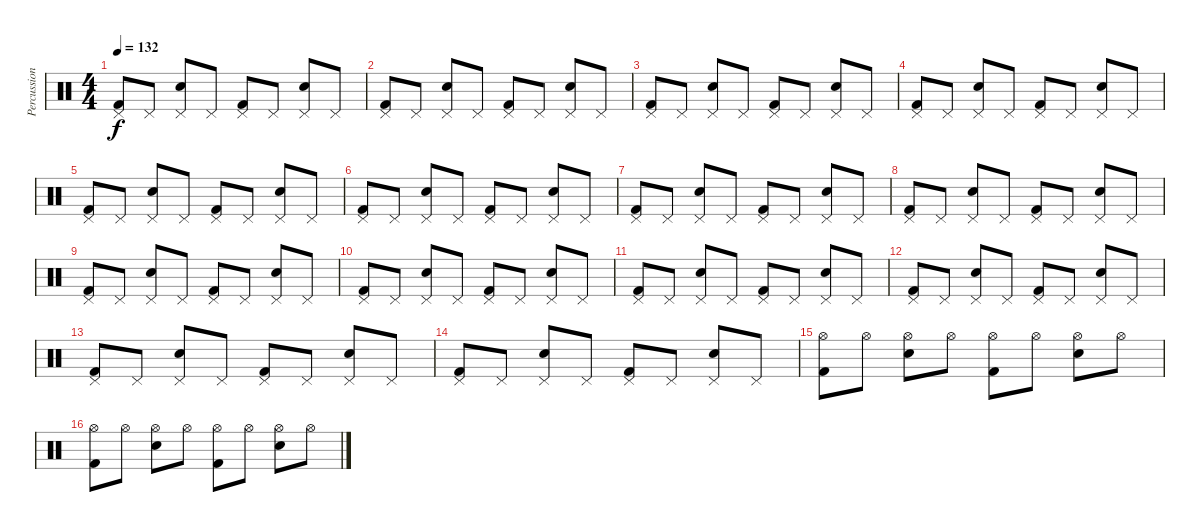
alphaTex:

\track ("Percussion" "Percussion") {instrument percussion}
\staff {score}
\articulation defaults
\ts (4 4)
\tempo 132
\clef neutral
\ks c
("Pedal Hi-Hat (hit)" "Kick (hit) 2").8{dy f} "Pedal Hi-Hat (hit)".8 ("Pedal Hi-Hat (hit)" "Snare (hit) 2").8 "Pedal Hi-Hat (hit)".8 ("Pedal Hi-Hat (hit)" "Kick (hit) 2").8 "Pedal Hi-Hat (hit)".8 ("Pedal Hi-Hat (hit)" "Snare (hit) 2").8 "Pedal Hi-Hat (hit)".8 |
("Pedal Hi-Hat (hit)" "Kick (hit) 2").8 "Pedal Hi-Hat (hit)".8 ("Pedal Hi-Hat (hit)" "Snare (hit) 2").8 "Pedal Hi-Hat (hit)".8 ("Pedal Hi-Hat (hit)" "Kick (hit) 2").8 "Pedal Hi-Hat (hit)".8 ("Pedal Hi-Hat (hit)" "Snare (hit) 2").8 "Pedal Hi-Hat (hit)".8 |
("Pedal Hi-Hat (hit)" "Kick (hit) 2").8 "Pedal Hi-Hat (hit)".8 ("Pedal Hi-Hat (hit)" "Snare (hit) 2").8 "Pedal Hi-Hat (hit)".8 ("Pedal Hi-Hat (hit)" "Kick (hit) 2").8 "Pedal Hi-Hat (hit)".8 ("Pedal Hi-Hat (hit)" "Snare (hit) 2").8 "Pedal Hi-Hat (hit)".8 |
("Pedal Hi-Hat (hit)" "Kick (hit) 2").8 "Pedal Hi-Hat (hit)".8 ("Pedal Hi-Hat (hit)" "Snare (hit) 2").8 "Pedal Hi-Hat (hit)".8 ("Pedal Hi-Hat (hit)" "Kick (hit) 2").8 "Pedal Hi-Hat (hit)".8 ("Pedal Hi-Hat (hit)" "Snare (hit) 2").8 "Pedal Hi-Hat (hit)".8 |
("Pedal Hi-Hat (hit)" "Kick (hit) 2").8 "Pedal Hi-Hat (hit)".8 ("Pedal Hi-Hat (hit)" "Snare (hit) 2").8 "Pedal Hi-Hat (hit)".8 ("Pedal Hi-Hat (hit)" "Kick (hit) 2").8 "Pedal Hi-Hat (hit)".8 ("Pedal Hi-Hat (hit)" "Snare (hit) 2").8 "Pedal Hi-Hat (hit)".8 |
("Pedal Hi-Hat (hit)" "Kick (hit) 2").8 "Pedal Hi-Hat (hit)".8 ("Pedal Hi-Hat (hit)" "Snare (hit) 2").8 "Pedal Hi-Hat (hit)".8 ("Pedal Hi-Hat (hit)" "Kick (hit) 2").8 "Pedal Hi-Hat (hit)".8 ("Pedal Hi-Hat (hit)" "Snare (hit) 2").8 "Pedal Hi-Hat (hit)".8 |
("Pedal Hi-Hat (hit)" "Kick (hit) 2").8 "Pedal Hi-Hat (hit)".8 ("Pedal Hi-Hat (hit)" "Snare (hit) 2").8 "Pedal Hi-Hat (hit)".8 ("Pedal Hi-Hat (hit)" "Kick (hit) 2").8 "Pedal Hi-Hat (hit)".8 ("Pedal Hi-Hat (hit)" "Snare (hit) 2").8 "Pedal Hi-Hat (hit)".8 |
("Pedal Hi-Hat (hit)" "Kick (hit) 2").8 "Pedal Hi-Hat (hit)".8 ("Pedal Hi-Hat (hit)" "Snare (hit) 2").8 "Pedal Hi-Hat (hit)".8 ("Pedal Hi-Hat (hit)" "Kick (hit) 2").8 "Pedal Hi-Hat (hit)".8 ("Pedal Hi-Hat (hit)" "Snare (hit) 2").8 "Pedal Hi-Hat (hit)".8 |
("Pedal Hi-Hat (hit)" "Kick (hit) 2").8 "Pedal Hi-Hat (hit)".8 ("Pedal Hi-Hat (hit)" "Snare (hit) 2").8 "Pedal Hi-Hat (hit)".8 ("Pedal Hi-Hat (hit)" "Kick (hit) 2").8 "Pedal Hi-Hat (hit)".8 ("Pedal Hi-Hat (hit)" "Snare (hit) 2").8 "Pedal Hi-Hat (hit)".8 |
("Pedal Hi-Hat (hit)" "Kick (hit) 2").8 "Pedal Hi-Hat (hit)".8 ("Pedal Hi-Hat (hit)" "Snare (hit) 2").8 "Pedal Hi-Hat (hit)".8 ("Pedal Hi-Hat (hit)" "Kick (hit) 2").8 "Pedal Hi-Hat (hit)".8 ("Pedal Hi-Hat (hit)" "Snare (hit) 2").8 "Pedal Hi-Hat (hit)".8 |
("Pedal Hi-Hat (hit)" "Kick (hit) 2").8 "Pedal Hi-Hat (hit)".8 ("Pedal Hi-Hat (hit)" "Snare (hit) 2").8 "Pedal Hi-Hat (hit)".8 ("Pedal Hi-Hat (hit)" "Kick (hit) 2").8 "Pedal Hi-Hat (hit)".8 ("Pedal Hi-Hat (hit)" "Snare (hit) 2").8 "Pedal Hi-Hat (hit)".8 |
("Pedal Hi-Hat (hit)" "Kick (hit) 2").8 "Pedal Hi-Hat (hit)".8 ("Pedal Hi-Hat (hit)" "Snare (hit) 2").8 "Pedal Hi-Hat (hit)".8 ("Pedal Hi-Hat (hit)" "Kick (hit) 2").8 "Pedal Hi-Hat (hit)".8 ("Pedal Hi-Hat (hit)" "Snare (hit) 2").8 "Pedal Hi-Hat (hit)".8 |
("Pedal Hi-Hat (hit)" "Kick (hit) 2").8 "Pedal Hi-Hat (hit)".8 ("Pedal Hi-Hat (hit)" "Snare (hit) 2").8 "Pedal Hi-Hat (hit)".8 ("Pedal Hi-Hat (hit)" "Kick (hit) 2").8 "Pedal Hi-Hat (hit)".8 ("Pedal Hi-Hat (hit)" "Snare (hit) 2").8 "Pedal Hi-Hat (hit)".8 |
("Pedal Hi-Hat (hit)" "Kick (hit) 2").8 "Pedal Hi-Hat (hit)".8 ("Pedal Hi-Hat (hit)" "Snare (hit) 2").8 "Pedal Hi-Hat (hit)".8 ("Pedal Hi-Hat (hit)" "Kick (hit) 2").8 "Pedal Hi-Hat (hit)".8 ("Pedal Hi-Hat (hit)" "Snare (hit) 2").8 "Pedal Hi-Hat (hit)".8 |
("Hi-Hat (open)" "Kick (hit) 2").8 "Hi-Hat (open)".8 ("Hi-Hat (open)" "Snare (hit) 2").8 "Hi-Hat (open)".8 ("Hi-Hat (open)" "Kick (hit) 2").8 "Hi-Hat (open)".8 ("Hi-Hat (open)" "Snare (hit) 2").8 "Hi-Hat (open)".8 |
("Hi-Hat (open)" "Kick (hit) 2").8 "Hi-Hat (open)".8 ("Hi-Hat (open)" "Snare (hit) 2").8 "Hi-Hat (open)".8 ("Hi-Hat (open)" "Kick (hit) 2").8 "Hi-Hat (open)".8 ("Hi-Hat (open)" "Snare (hit) 2").8 "Hi-Hat (open)".8
